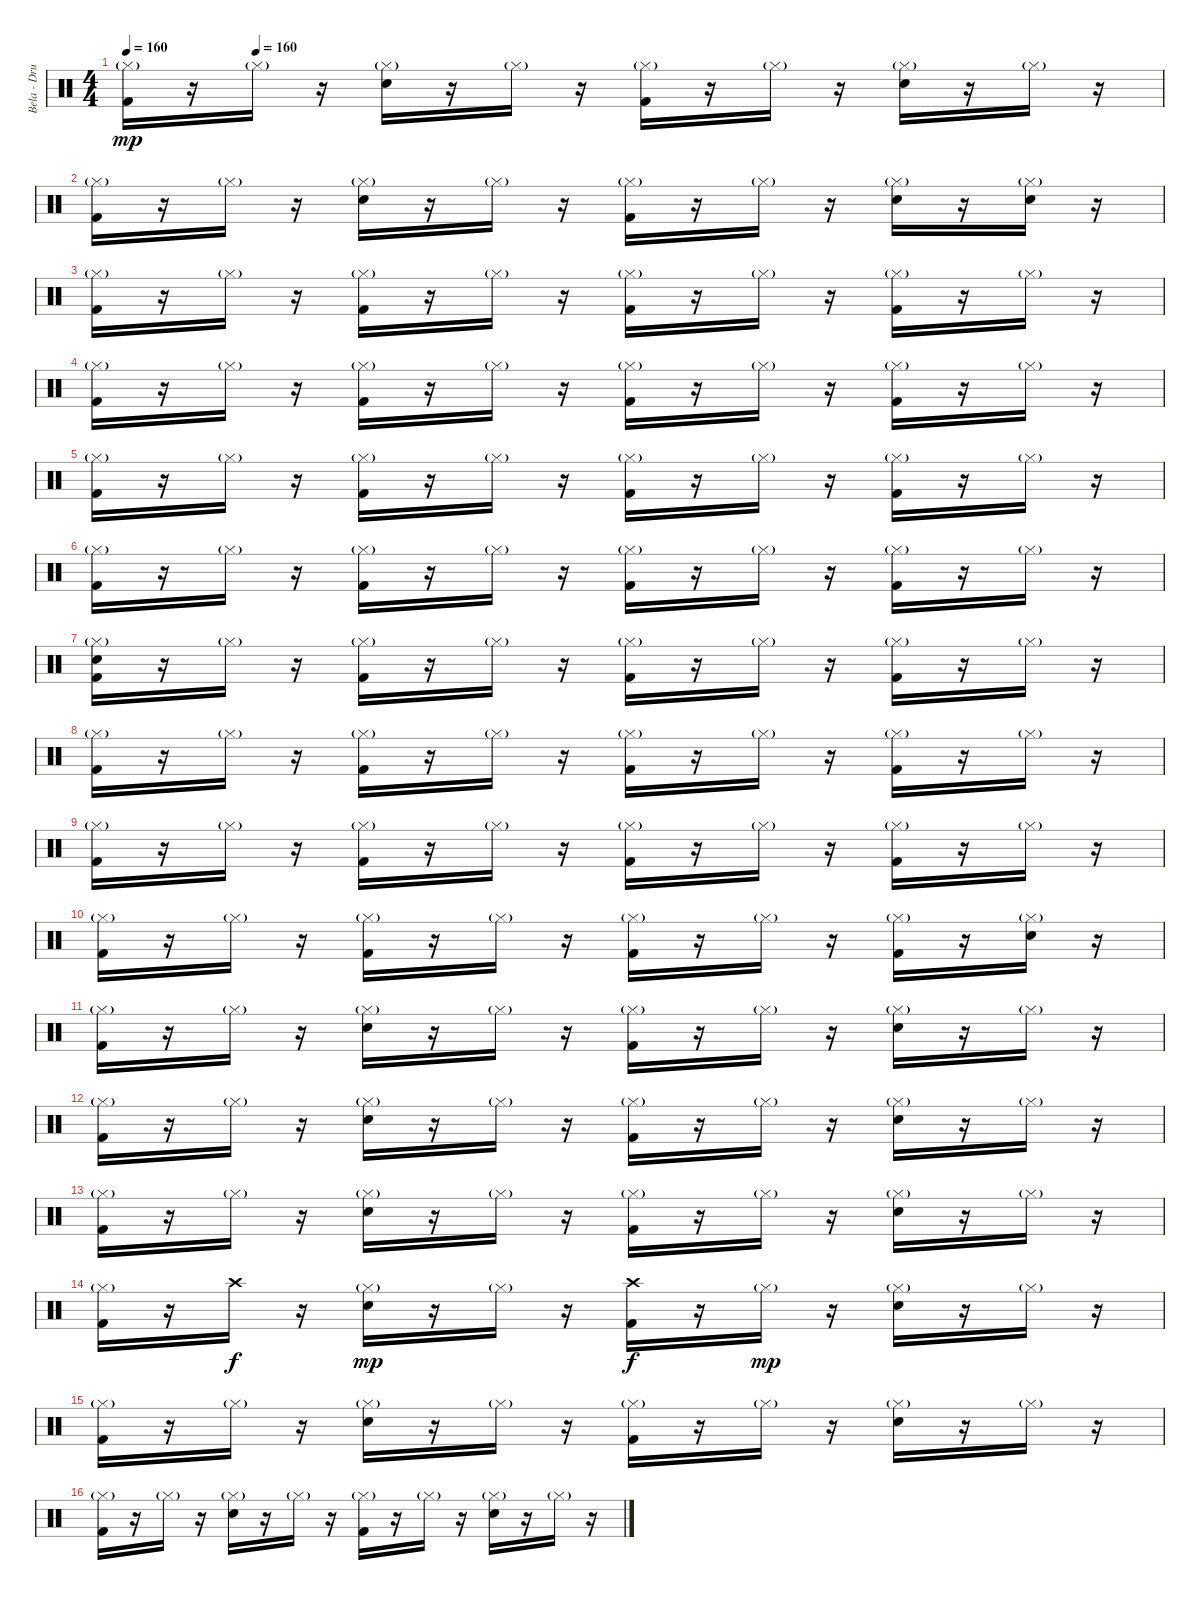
\track ("Bela - Drums" "Bela - Dru") {instrument percussion}
\staff {score}
\articulation defaults
\ts (4 4)
\tempo 160
\tempo (160 0.125)
\clef neutral
\ks c
("Hi-Hat (closed)"{g} "Kick (hit) 2").16{dy mp} r.16 "Hi-Hat (closed)"{g}.16 r.16 ("Hi-Hat (closed)"{g} "Electric Snare (hit)").16 r.16 "Hi-Hat (closed)"{g}.16 r.16 ("Hi-Hat (closed)"{g} "Kick (hit) 2").16 r.16 "Hi-Hat (closed)"{g}.16 r.16 ("Hi-Hat (closed)"{g} "Electric Snare (hit)").16 r.16 "Hi-Hat (closed)"{g}.16 r.16 |
("Hi-Hat (closed)"{g} "Kick (hit) 2").16 r.16 "Hi-Hat (closed)"{g}.16 r.16 ("Hi-Hat (closed)"{g} "Electric Snare (hit)").16 r.16 "Hi-Hat (closed)"{g}.16 r.16 ("Hi-Hat (closed)"{g} "Kick (hit) 2").16 r.16 "Hi-Hat (closed)"{g}.16 r.16 ("Hi-Hat (closed)"{g} "Electric Snare (hit)").16 r.16 ("Hi-Hat (closed)"{g} "Electric Snare (hit)").16 r.16 |
("Hi-Hat (closed)"{g} "Kick (hit) 2").16 r.16 "Hi-Hat (closed)"{g}.16 r.16 ("Hi-Hat (closed)"{g} "Kick (hit) 2").16 r.16 "Hi-Hat (closed)"{g}.16 r.16 ("Hi-Hat (closed)"{g} "Kick (hit) 2").16 r.16 "Hi-Hat (closed)"{g}.16 r.16 ("Hi-Hat (closed)"{g} "Kick (hit) 2").16 r.16 "Hi-Hat (closed)"{g}.16 r.16 |
("Hi-Hat (closed)"{g} "Kick (hit) 2").16 r.16 "Hi-Hat (closed)"{g}.16 r.16 ("Hi-Hat (closed)"{g} "Kick (hit) 2").16 r.16 "Hi-Hat (closed)"{g}.16 r.16 ("Hi-Hat (closed)"{g} "Kick (hit) 2").16 r.16 "Hi-Hat (closed)"{g}.16 r.16 ("Hi-Hat (closed)"{g} "Kick (hit) 2").16 r.16 "Hi-Hat (closed)"{g}.16 r.16 |
("Hi-Hat (closed)"{g} "Kick (hit) 2").16 r.16 "Hi-Hat (closed)"{g}.16 r.16 ("Hi-Hat (closed)"{g} "Kick (hit) 2").16 r.16 "Hi-Hat (closed)"{g}.16 r.16 ("Hi-Hat (closed)"{g} "Kick (hit) 2").16 r.16 "Hi-Hat (closed)"{g}.16 r.16 ("Hi-Hat (closed)"{g} "Kick (hit) 2").16 r.16 "Hi-Hat (closed)"{g}.16 r.16 |
("Hi-Hat (closed)"{g} "Kick (hit) 2").16 r.16 "Hi-Hat (closed)"{g}.16 r.16 ("Hi-Hat (closed)"{g} "Kick (hit) 2").16 r.16 "Hi-Hat (closed)"{g}.16 r.16 ("Hi-Hat (closed)"{g} "Kick (hit) 2").16 r.16 "Hi-Hat (closed)"{g}.16 r.16 ("Hi-Hat (closed)"{g} "Kick (hit) 2").16 r.16 "Hi-Hat (closed)"{g}.16 r.16 |
("Hi-Hat (closed)"{g} "Electric Snare (hit)" "Kick (hit) 2").16 r.16 "Hi-Hat (closed)"{g}.16 r.16 ("Hi-Hat (closed)"{g} "Kick (hit) 2").16 r.16 "Hi-Hat (closed)"{g}.16 r.16 ("Hi-Hat (closed)"{g} "Kick (hit) 2").16 r.16 "Hi-Hat (closed)"{g}.16 r.16 ("Hi-Hat (closed)"{g} "Kick (hit) 2").16 r.16 "Hi-Hat (closed)"{g}.16 r.16 |
("Hi-Hat (closed)"{g} "Kick (hit) 2").16 r.16 "Hi-Hat (closed)"{g}.16 r.16 ("Hi-Hat (closed)"{g} "Kick (hit) 2").16 r.16 "Hi-Hat (closed)"{g}.16 r.16 ("Hi-Hat (closed)"{g} "Kick (hit) 2").16 r.16 "Hi-Hat (closed)"{g}.16 r.16 ("Hi-Hat (closed)"{g} "Kick (hit) 2").16 r.16 "Hi-Hat (closed)"{g}.16 r.16 |
("Hi-Hat (closed)"{g} "Kick (hit) 2").16 r.16 "Hi-Hat (closed)"{g}.16 r.16 ("Hi-Hat (closed)"{g} "Kick (hit) 2").16 r.16 "Hi-Hat (closed)"{g}.16 r.16 ("Hi-Hat (closed)"{g} "Kick (hit) 2").16 r.16 "Hi-Hat (closed)"{g}.16 r.16 ("Hi-Hat (closed)"{g} "Kick (hit) 2").16 r.16 "Hi-Hat (closed)"{g}.16 r.16 |
("Hi-Hat (closed)"{g} "Kick (hit) 2").16 r.16 "Hi-Hat (closed)"{g}.16 r.16 ("Hi-Hat (closed)"{g} "Kick (hit) 2").16 r.16 "Hi-Hat (closed)"{g}.16 r.16 ("Hi-Hat (closed)"{g} "Kick (hit) 2").16 r.16 "Hi-Hat (closed)"{g}.16 r.16 ("Hi-Hat (closed)"{g} "Kick (hit) 2").16 r.16 ("Hi-Hat (closed)"{g} "Electric Snare (hit)").16 r.16 |
("Hi-Hat (closed)"{g} "Kick (hit) 2").16 r.16 "Hi-Hat (closed)"{g}.16 r.16 ("Hi-Hat (closed)"{g} "Electric Snare (hit)").16 r.16 "Hi-Hat (closed)"{g}.16 r.16 ("Hi-Hat (closed)"{g} "Kick (hit) 2").16 r.16 "Hi-Hat (closed)"{g}.16 r.16 ("Hi-Hat (closed)"{g} "Electric Snare (hit)").16 r.16 "Hi-Hat (closed)"{g}.16 r.16 |
("Hi-Hat (closed)"{g} "Kick (hit) 2").16 r.16 "Hi-Hat (closed)"{g}.16 r.16 ("Hi-Hat (closed)"{g} "Electric Snare (hit)").16 r.16 "Hi-Hat (closed)"{g}.16 r.16 ("Hi-Hat (closed)"{g} "Kick (hit) 2").16 r.16 "Hi-Hat (closed)"{g}.16 r.16 ("Hi-Hat (closed)"{g} "Electric Snare (hit)").16 r.16 "Hi-Hat (closed)"{g}.16 r.16 |
("Hi-Hat (closed)"{g} "Kick (hit) 2").16 r.16 "Hi-Hat (closed)"{g}.16 r.16 ("Hi-Hat (closed)"{g} "Electric Snare (hit)").16 r.16 "Hi-Hat (closed)"{g}.16 r.16 ("Hi-Hat (closed)"{g} "Kick (hit) 2").16 r.16 "Hi-Hat (closed)"{g}.16 r.16 ("Hi-Hat (closed)"{g} "Electric Snare (hit)").16 r.16 "Hi-Hat (closed)"{g}.16 r.16 |
("Hi-Hat (closed)"{g} "Kick (hit) 2").16 r.16 "Crash high (hit)".16{dy f} r.16 ("Hi-Hat (closed)"{g} "Electric Snare (hit)").16{dy mp} r.16 "Hi-Hat (closed)"{g}.16 r.16 ("Crash high (hit)" "Kick (hit) 2").16{dy f} r.16 "Hi-Hat (closed)"{g}.16{dy mp} r.16 ("Hi-Hat (closed)"{g} "Electric Snare (hit)").16 r.16 "Hi-Hat (closed)"{g}.16 r.16 |
("Hi-Hat (closed)"{g} "Kick (hit) 2").16 r.16 "Hi-Hat (closed)"{g}.16 r.16 ("Hi-Hat (closed)"{g} "Electric Snare (hit)").16 r.16 "Hi-Hat (closed)"{g}.16 r.16 ("Hi-Hat (closed)"{g} "Kick (hit) 2").16 r.16 "Hi-Hat (closed)"{g}.16 r.16 ("Hi-Hat (closed)"{g} "Electric Snare (hit)").16 r.16 "Hi-Hat (closed)"{g}.16 r.16 |
("Hi-Hat (closed)"{g} "Kick (hit) 2").16 r.16 "Hi-Hat (closed)"{g}.16 r.16 ("Hi-Hat (closed)"{g} "Electric Snare (hit)").16 r.16 "Hi-Hat (closed)"{g}.16 r.16 ("Hi-Hat (closed)"{g} "Kick (hit) 2").16 r.16 "Hi-Hat (closed)"{g}.16 r.16 ("Hi-Hat (closed)"{g} "Electric Snare (hit)").16 r.16 "Hi-Hat (closed)"{g}.16 r.16
